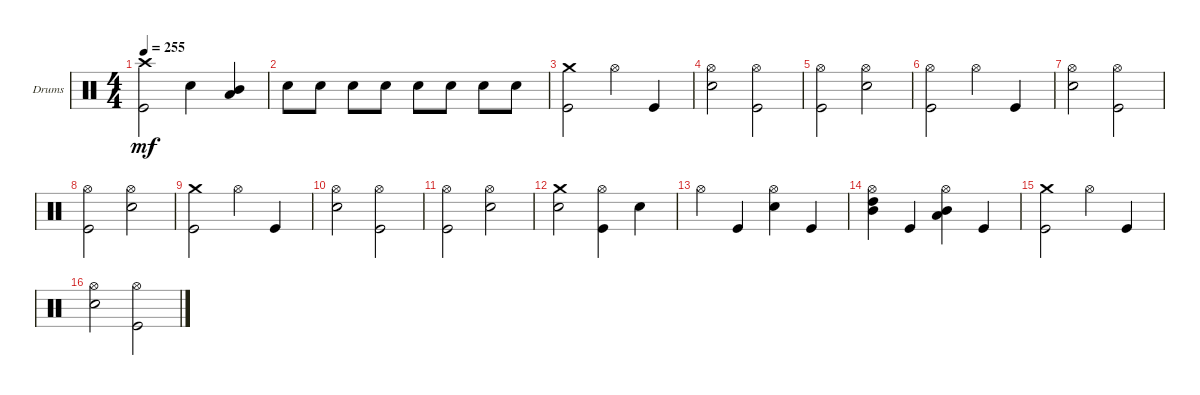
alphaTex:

\bracketExtendMode groupsimilarinstruments
\firstSystemTrackNameOrientation horizontal
\otherSystemsTrackNameOrientation horizontal
\track ("Drums" "Drums") {instrument percussion}
\staff {score}
\articulation defaults
\ts (4 4)
\tempo 255
\clef neutral
\ks c
("Kick (hit)" "Crash high (hit)").2{dy mf} "Snare (hit) 2".4 ("Low Tom (hit)" "Mid Tom (hit)").4 |
"Snare (hit) 2".8 "Snare (hit) 2".8 "Snare (hit) 2".8 "Snare (hit) 2".8 "Snare (hit) 2".8 "Snare (hit) 2".8 "Snare (hit) 2".8 "Snare (hit) 2".8 |
("Kick (hit)" "Crash medium (hit)").2 "Hi-Hat (open)".4 "Kick (hit)".4 |
("Snare (hit) 2" "Hi-Hat (open)").2 ("Kick (hit)" "Hi-Hat (open)").2 |
("Kick (hit)" "Hi-Hat (open)").2 ("Snare (hit) 2" "Hi-Hat (open)").2 |
("Kick (hit)" "Hi-Hat (open)").2 "Hi-Hat (open)".4 "Kick (hit)".4 |
("Snare (hit) 2" "Hi-Hat (open)").2 ("Kick (hit)" "Hi-Hat (open)").2 |
("Kick (hit)" "Hi-Hat (open)").2 ("Snare (hit) 2" "Hi-Hat (open)").2 |
("Kick (hit)" "Crash medium (hit)").2 "Hi-Hat (open)".4 "Kick (hit)".4 |
("Snare (hit) 2" "Hi-Hat (open)").2 ("Kick (hit)" "Hi-Hat (open)").2 |
("Kick (hit)" "Hi-Hat (open)").2 ("Snare (hit) 2" "Hi-Hat (open)").2 |
("Snare (hit) 2" "Crash medium (hit)").2 ("Kick (hit)" "Hi-Hat (open)").4 "Snare (hit) 2".4 |
"Hi-Hat (open)".4 "Kick (hit)".4 ("Snare (hit) 2" "Hi-Hat (open)").4 "Kick (hit)".4 |
("Mid Tom (hit)" "High Tom (hit)" "Hi-Hat (open)").4 "Kick (hit)".4 ("Low Tom (hit)" "Mid Tom (hit)" "Hi-Hat (open)").4 "Kick (hit)".4 |
("Kick (hit)" "Crash medium (hit)").2 "Hi-Hat (open)".4 "Kick (hit)".4 |
("Snare (hit) 2" "Hi-Hat (open)").2 ("Kick (hit)" "Hi-Hat (open)").2
